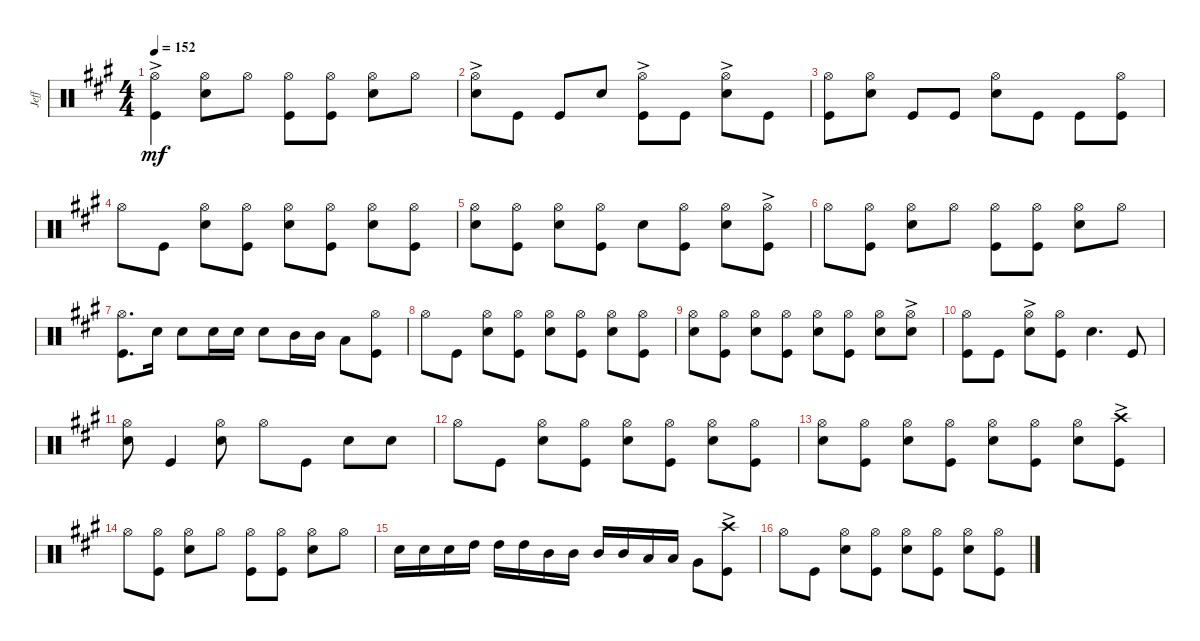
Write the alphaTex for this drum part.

\track ("Jeff" "Jeff") {instrument percussion}
\staff {score}
\articulation defaults
\ts (4 4)
\tempo 152
\clef neutral
\ks a
("Hi-Hat (open)"{ac} "Kick (hit)").4{dy mf} ("Hi-Hat (open)" "Snare (hit) 2").8 "Hi-Hat (open)".8 ("Hi-Hat (open)" "Kick (hit)").8 ("Hi-Hat (open)" "Kick (hit)").8 ("Hi-Hat (open)" "Snare (hit) 2").8 "Hi-Hat (open)".8 |
("Hi-Hat (open)" "Snare (hit) 2"{ac}).8 "Kick (hit)".8 "Kick (hit)".8 "Snare (hit) 2".8 ("Hi-Hat (open)" "Kick (hit)"{ac}).8 "Kick (hit)".8 ("Hi-Hat (open)" "Snare (hit) 2"{ac}).8 "Kick (hit)".8 |
("Hi-Hat (open)" "Kick (hit)").8 ("Hi-Hat (open)" "Snare (hit) 2").8 "Kick (hit)".8 "Kick (hit)".8 ("Hi-Hat (open)" "Snare (hit) 2").8 "Kick (hit)".8 "Kick (hit)".8 ("Hi-Hat (open)" "Kick (hit)").8 |
"Hi-Hat (open)".8 "Kick (hit)".8 ("Hi-Hat (open)" "Snare (hit) 2").8 ("Hi-Hat (open)" "Kick (hit)").8 ("Hi-Hat (open)" "Snare (hit) 2").8 ("Hi-Hat (open)" "Kick (hit)").8 ("Hi-Hat (open)" "Snare (hit) 2").8 ("Hi-Hat (open)" "Kick (hit)").8 |
("Hi-Hat (open)" "Snare (hit) 2").8 ("Hi-Hat (open)" "Kick (hit)").8 ("Hi-Hat (open)" "Snare (hit) 2").8 ("Hi-Hat (open)" "Kick (hit)").8 "Snare (hit) 2".8 ("Hi-Hat (open)" "Kick (hit)").8 ("Hi-Hat (open)" "Snare (hit) 2").8 ("Hi-Hat (open)" "Kick (hit)"{ac}).8 |
"Hi-Hat (open)".8 ("Hi-Hat (open)" "Kick (hit)").8 ("Hi-Hat (open)" "Snare (hit) 2").8 "Hi-Hat (open)".8 ("Hi-Hat (open)" "Kick (hit)").8 ("Hi-Hat (open)" "Kick (hit)").8 ("Hi-Hat (open)" "Snare (hit) 2").8 "Hi-Hat (open)".8 |
("Hi-Hat (open)" "Kick (hit)").8{d} "Snare (hit) 2".16 "Snare (hit) 2".8 "Snare (hit) 2".16 "Snare (hit) 2".16 "Snare (hit) 2".8 "Mid Tom (hit)".16 "Mid Tom (hit)".16 "Low Tom (hit)".8 ("Hi-Hat (open)" "Kick (hit)").8 |
"Hi-Hat (open)".8 "Kick (hit)".8 ("Hi-Hat (open)" "Snare (hit) 2").8 ("Hi-Hat (open)" "Kick (hit)").8 ("Hi-Hat (open)" "Snare (hit) 2").8 ("Hi-Hat (open)" "Kick (hit)").8 ("Hi-Hat (open)" "Snare (hit) 2").8 ("Hi-Hat (open)" "Kick (hit)").8 |
("Hi-Hat (open)" "Snare (hit) 2").8 ("Hi-Hat (open)" "Kick (hit)").8 ("Hi-Hat (open)" "Snare (hit) 2").8 ("Hi-Hat (open)" "Kick (hit)").8 ("Hi-Hat (open)" "Snare (hit) 2").8 ("Hi-Hat (open)" "Kick (hit)").8 ("Hi-Hat (open)" "Snare (hit) 2").8 ("Hi-Hat (open)" "Snare (hit) 2"{ac}).8 |
("Hi-Hat (open)" "Kick (hit)").8 "Kick (hit)".8 ("Hi-Hat (open)"{ac} "Snare (hit) 2").8 ("Hi-Hat (open)" "Kick (hit)").8 "Snare (hit) 2".4{d} "Kick (hit)".8 |
("Hi-Hat (open)" "Snare (hit) 2").8 "Kick (hit)".4 ("Hi-Hat (open)" "Snare (hit) 2").8 "Hi-Hat (open)".8 "Kick (hit)".8 "Snare (hit) 2".8 "Snare (hit) 2".8 |
"Hi-Hat (open)".8 "Kick (hit)".8 ("Hi-Hat (open)" "Snare (hit) 2").8 ("Hi-Hat (open)" "Kick (hit)").8 ("Hi-Hat (open)" "Snare (hit) 2").8 ("Hi-Hat (open)" "Kick (hit)").8 ("Hi-Hat (open)" "Snare (hit) 2").8 ("Hi-Hat (open)" "Kick (hit)").8 |
("Hi-Hat (open)" "Snare (hit) 2").8 ("Hi-Hat (open)" "Kick (hit)").8 ("Hi-Hat (open)" "Snare (hit) 2").8 ("Hi-Hat (open)" "Kick (hit)").8 ("Hi-Hat (open)" "Snare (hit) 2").8 ("Hi-Hat (open)" "Kick (hit)").8 ("Hi-Hat (open)" "Snare (hit) 2").8 ("Crash high (hit)"{ac} "Kick (hit)").8 |
"Hi-Hat (open)".8 ("Hi-Hat (open)" "Kick (hit)").8 ("Hi-Hat (open)" "Snare (hit) 2").8 "Hi-Hat (open)".8 ("Hi-Hat (open)" "Kick (hit)").8 ("Hi-Hat (open)" "Kick (hit)").8 ("Hi-Hat (open)" "Snare (hit) 2").8 "Hi-Hat (open)".8 |
"Snare (hit) 2".16 "Snare (hit) 2".16 "Snare (hit) 2".16 "High Tom (hit)".16 "High Tom (hit)".16 "High Tom (hit)".16 "Mid Tom (hit)".16 "Mid Tom (hit)".16 "Mid Tom (hit)".16 "Mid Tom (hit)".16 "Low Tom (hit)".16 "Low Tom (hit)".16 "Very Low Tom (hit)".8 ("Crash high (hit)" "Kick (hit)"{ac}).8 |
"Hi-Hat (open)".8 "Kick (hit)".8 ("Hi-Hat (open)" "Snare (hit) 2").8 ("Hi-Hat (open)" "Kick (hit)").8 ("Hi-Hat (open)" "Snare (hit) 2").8 ("Hi-Hat (open)" "Kick (hit)").8 ("Hi-Hat (open)" "Metronome (bell)").8 ("Hi-Hat (open)" "Kick (hit)").8
